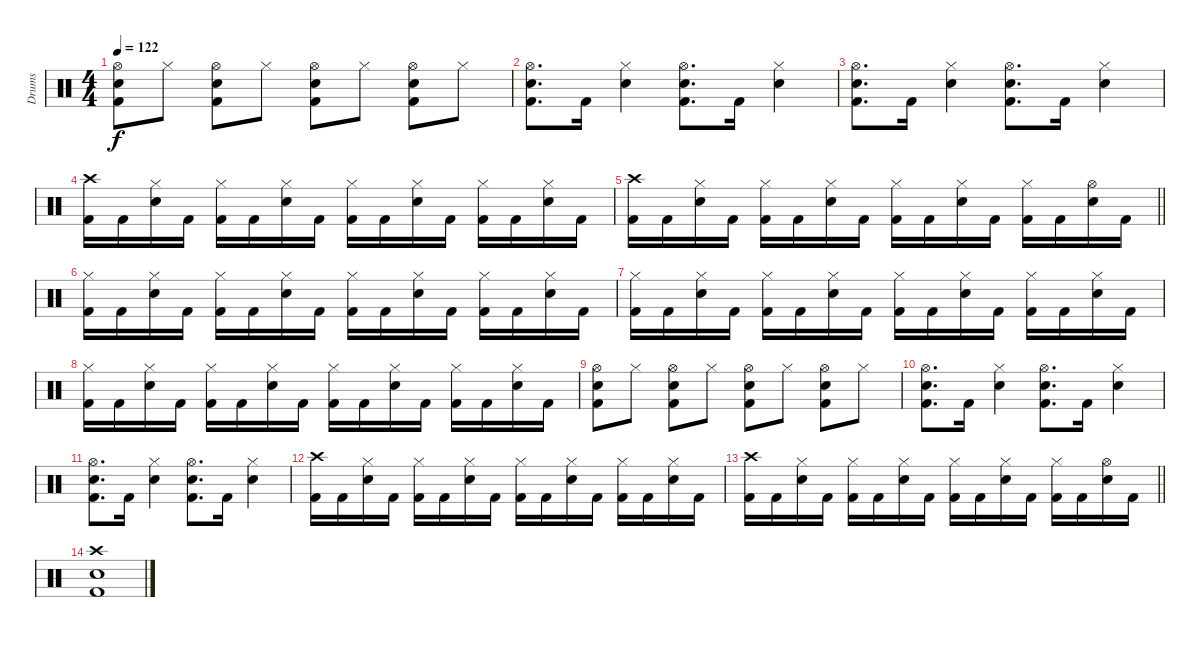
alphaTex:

\track ("Drums" "Drums") {instrument percussion}
\staff {score}
\articulation defaults
\ts (4 4)
\tempo 122
\clef neutral
\ks c
("Hi-Hat (open)" "Snare (hit) 2" "Kick (hit) 2").8{dy f} "Hi-Hat (closed)".8 ("Hi-Hat (open)" "Snare (hit) 2" "Kick (hit) 2").8 "Hi-Hat (closed)".8 ("Hi-Hat (open)" "Snare (hit) 2" "Kick (hit) 2").8 "Hi-Hat (closed)".8 ("Hi-Hat (open)" "Snare (hit) 2" "Kick (hit) 2").8 "Hi-Hat (closed)".8 |
("Hi-Hat (open)" "Snare (hit) 2" "Kick (hit) 2").8{d} "Kick (hit) 2".16 ("Hi-Hat (closed)" "Snare (hit) 2").4 ("Hi-Hat (open)" "Snare (hit) 2" "Kick (hit) 2").8{d} "Kick (hit) 2".16 ("Hi-Hat (closed)" "Snare (hit) 2").4 |
("Hi-Hat (open)" "Snare (hit) 2" "Kick (hit) 2").8{d} "Kick (hit) 2".16 ("Hi-Hat (closed)" "Snare (hit) 2").4 ("Hi-Hat (open)" "Snare (hit) 2" "Kick (hit) 2").8{d} "Kick (hit) 2".16 ("Hi-Hat (closed)" "Snare (hit) 2").4 |
("Crash high (hit)" "Kick (hit) 2").16 "Kick (hit) 2".16 ("Hi-Hat (closed)" "Snare (hit) 2").16 "Kick (hit) 2".16 ("Hi-Hat (closed)" "Kick (hit) 2").16 "Kick (hit) 2".16 ("Hi-Hat (closed)" "Snare (hit) 2").16 "Kick (hit) 2".16 ("Hi-Hat (closed)" "Kick (hit) 2").16 "Kick (hit) 2".16 ("Hi-Hat (closed)" "Snare (hit) 2").16 "Kick (hit) 2".16 ("Hi-Hat (closed)" "Kick (hit) 2").16 "Kick (hit) 2".16 ("Hi-Hat (closed)" "Snare (hit) 2").16 "Kick (hit) 2".16 |
\barLineRight lightlight
("Crash high (hit)" "Kick (hit) 2").16 "Kick (hit) 2".16 ("Hi-Hat (closed)" "Snare (hit) 2").16 "Kick (hit) 2".16 ("Hi-Hat (closed)" "Kick (hit) 2").16 "Kick (hit) 2".16 ("Hi-Hat (closed)" "Snare (hit) 2").16 "Kick (hit) 2".16 ("Hi-Hat (closed)" "Kick (hit) 2").16 "Kick (hit) 2".16 ("Hi-Hat (closed)" "Snare (hit) 2").16 "Kick (hit) 2".16 ("Hi-Hat (closed)" "Kick (hit) 2").16 "Kick (hit) 2".16 ("Hi-Hat (open)" "Snare (hit) 2").16 "Kick (hit) 2".16 |
("Hi-Hat (closed)" "Kick (hit) 2").16 "Kick (hit) 2".16 ("Hi-Hat (closed)" "Snare (hit) 2").16 "Kick (hit) 2".16 ("Hi-Hat (closed)" "Kick (hit) 2").16 "Kick (hit) 2".16 ("Hi-Hat (closed)" "Snare (hit) 2").16 "Kick (hit) 2".16 ("Hi-Hat (closed)" "Kick (hit) 2").16 "Kick (hit) 2".16 ("Hi-Hat (closed)" "Snare (hit) 2").16 "Kick (hit) 2".16 ("Hi-Hat (closed)" "Kick (hit) 2").16 "Kick (hit) 2".16 ("Hi-Hat (closed)" "Snare (hit) 2").16 "Kick (hit) 2".16 |
("Hi-Hat (closed)" "Kick (hit) 2").16 "Kick (hit) 2".16 ("Hi-Hat (closed)" "Snare (hit) 2").16 "Kick (hit) 2".16 ("Hi-Hat (closed)" "Kick (hit) 2").16 "Kick (hit) 2".16 ("Hi-Hat (closed)" "Snare (hit) 2").16 "Kick (hit) 2".16 ("Hi-Hat (closed)" "Kick (hit) 2").16 "Kick (hit) 2".16 ("Hi-Hat (closed)" "Snare (hit) 2").16 "Kick (hit) 2".16 ("Hi-Hat (closed)" "Kick (hit) 2").16 "Kick (hit) 2".16 ("Hi-Hat (closed)" "Snare (hit) 2").16 "Kick (hit) 2".16 |
("Hi-Hat (closed)" "Kick (hit) 2").16 "Kick (hit) 2".16 ("Hi-Hat (closed)" "Snare (hit) 2").16 "Kick (hit) 2".16 ("Hi-Hat (closed)" "Kick (hit) 2").16 "Kick (hit) 2".16 ("Hi-Hat (closed)" "Snare (hit) 2").16 "Kick (hit) 2".16 ("Hi-Hat (closed)" "Kick (hit) 2").16 "Kick (hit) 2".16 ("Hi-Hat (closed)" "Snare (hit) 2").16 "Kick (hit) 2".16 ("Hi-Hat (closed)" "Kick (hit) 2").16 "Kick (hit) 2".16 ("Hi-Hat (closed)" "Snare (hit) 2").16 "Kick (hit) 2".16 |
("Hi-Hat (open)" "Snare (hit) 2" "Kick (hit) 2").8 "Hi-Hat (closed)".8 ("Hi-Hat (open)" "Snare (hit) 2" "Kick (hit) 2").8 "Hi-Hat (closed)".8 ("Hi-Hat (open)" "Snare (hit) 2" "Kick (hit) 2").8 "Hi-Hat (closed)".8 ("Hi-Hat (open)" "Snare (hit) 2" "Kick (hit) 2").8 "Hi-Hat (closed)".8 |
("Hi-Hat (open)" "Snare (hit) 2" "Kick (hit) 2").8{d} "Kick (hit) 2".16 ("Hi-Hat (closed)" "Snare (hit) 2").4 ("Hi-Hat (open)" "Snare (hit) 2" "Kick (hit) 2").8{d} "Kick (hit) 2".16 ("Hi-Hat (closed)" "Snare (hit) 2").4 |
("Hi-Hat (open)" "Snare (hit) 2" "Kick (hit) 2").8{d} "Kick (hit) 2".16 ("Hi-Hat (closed)" "Snare (hit) 2").4 ("Hi-Hat (open)" "Snare (hit) 2" "Kick (hit) 2").8{d} "Kick (hit) 2".16 ("Hi-Hat (closed)" "Snare (hit) 2").4 |
("Crash high (hit)" "Kick (hit) 2").16 "Kick (hit) 2".16 ("Hi-Hat (closed)" "Snare (hit) 2").16 "Kick (hit) 2".16 ("Hi-Hat (closed)" "Kick (hit) 2").16 "Kick (hit) 2".16 ("Hi-Hat (closed)" "Snare (hit) 2").16 "Kick (hit) 2".16 ("Hi-Hat (closed)" "Kick (hit) 2").16 "Kick (hit) 2".16 ("Hi-Hat (closed)" "Snare (hit) 2").16 "Kick (hit) 2".16 ("Hi-Hat (closed)" "Kick (hit) 2").16 "Kick (hit) 2".16 ("Hi-Hat (closed)" "Snare (hit) 2").16 "Kick (hit) 2".16 |
\barLineRight lightlight
("Crash high (hit)" "Kick (hit) 2").16 "Kick (hit) 2".16 ("Hi-Hat (closed)" "Snare (hit) 2").16 "Kick (hit) 2".16 ("Hi-Hat (closed)" "Kick (hit) 2").16 "Kick (hit) 2".16 ("Hi-Hat (closed)" "Snare (hit) 2").16 "Kick (hit) 2".16 ("Hi-Hat (closed)" "Kick (hit) 2").16 "Kick (hit) 2".16 ("Hi-Hat (closed)" "Snare (hit) 2").16 "Kick (hit) 2".16 ("Hi-Hat (closed)" "Kick (hit) 2").16 "Kick (hit) 2".16 ("Hi-Hat (open)" "Snare (hit) 2").16 "Kick (hit) 2".16 |
("Crash high (hit)" "Snare (hit) 2" "Kick (hit) 2").1
